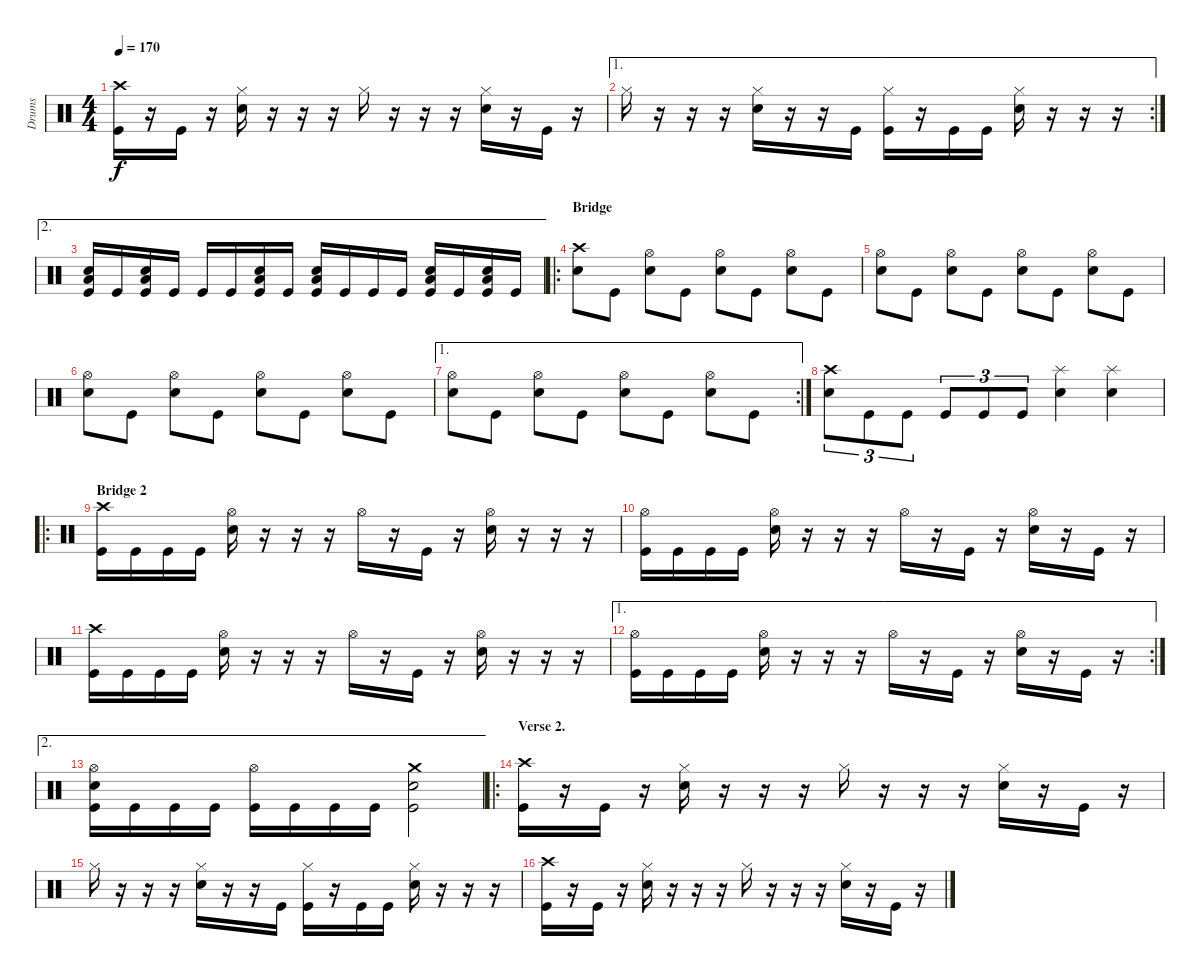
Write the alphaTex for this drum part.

\track ("Drums" "Drums") {instrument percussion}
\staff {score}
\articulation defaults
\ts (4 4)
\tempo 170
\clef neutral
\ks c
("Crash high (hit)" "Kick (hit)").16{dy f} r.16 "Kick (hit)".16 r.16 ("Hi-Hat (closed)" "Snare (hit) 2").16 r.16 r.16 r.16 "Hi-Hat (closed)".16 r.16 r.16 r.16 ("Hi-Hat (closed)" "Snare (hit) 2").16 r.16 "Kick (hit)".16 r.16 |
\ae 1
\rc 2 "Hi-Hat (closed)".16
r.16 r.16 r.16 ("Hi-Hat (closed)" "Snare (hit) 2").16 r.16 r.16 "Kick (hit)".16 ("Hi-Hat (closed)" "Kick (hit)").16 r.16 "Kick (hit)".16 "Kick (hit)".16 ("Hi-Hat (closed)" "Snare (hit) 2").16 r.16 r.16 r.16 |
\ae 2
("Low Floor Tom (hit)" "Snare (hit) 2" "Kick (hit)").16 "Kick (hit)".16 ("Low Floor Tom (hit)" "Snare (hit) 2" "Kick (hit)").16 "Kick (hit)".16 "Kick (hit)".16 "Kick (hit)".16 ("Low Floor Tom (hit)" "Snare (hit) 2" "Kick (hit)").16 "Kick (hit)".16 ("Low Floor Tom (hit)" "Snare (hit) 2" "Kick (hit)").16 "Kick (hit)".16 "Kick (hit)".16 "Kick (hit)".16 ("Low Floor Tom (hit)" "Snare (hit) 2" "Kick (hit)").16 "Kick (hit)".16 ("Low Floor Tom (hit)" "Snare (hit) 2" "Kick (hit)").16 "Kick (hit)".16 |
\ro
\section ("" "Bridge")
("Crash high (hit)" "Snare (hit) 2").8 "Kick (hit)".8 ("Hi-Hat (open)" "Snare (hit) 2").8 "Kick (hit)".8 ("Hi-Hat (open)" "Snare (hit) 2").8 "Kick (hit)".8 ("Hi-Hat (open)" "Snare (hit) 2").8 "Kick (hit)".8 |
("Hi-Hat (open)" "Snare (hit) 2").8 "Kick (hit)".8 ("Hi-Hat (open)" "Snare (hit) 2").8 "Kick (hit)".8 ("Hi-Hat (open)" "Snare (hit) 2").8 "Kick (hit)".8 ("Hi-Hat (open)" "Snare (hit) 2").8 "Kick (hit)".8 |
("Hi-Hat (open)" "Snare (hit) 2").8 "Kick (hit)".8 ("Hi-Hat (open)" "Snare (hit) 2").8 "Kick (hit)".8 ("Hi-Hat (open)" "Snare (hit) 2").8 "Kick (hit)".8 ("Hi-Hat (open)" "Snare (hit) 2").8 "Kick (hit)".8 |
\ae 1
\rc 2
("Hi-Hat (open)" "Snare (hit) 2").8 "Kick (hit)".8 ("Hi-Hat (open)" "Snare (hit) 2").8 "Kick (hit)".8 ("Hi-Hat (open)" "Snare (hit) 2").8 "Kick (hit)".8 ("Hi-Hat (open)" "Snare (hit) 2").8 "Kick (hit)".8 |
("Crash high (hit)" "Snare (hit) 2").8{tu (3 2)} "Kick (hit)".8{tu (3 2)} "Kick (hit)".8{tu (3 2)} "Kick (hit)".8{tu (3 2)} "Kick (hit)".8{tu (3 2)} "Kick (hit)".8{tu (3 2)} ("Splash (hit)" "Snare (hit) 2").4 ("Splash (hit)" "Snare (hit) 2").4 |
\ro
\section ("" "Bridge 2")
("Crash high (hit)" "Kick (hit)").16 "Kick (hit)".16 "Kick (hit)".16 "Kick (hit)".16 ("Hi-Hat (open)" "Snare (hit) 2").16 r.16 r.16 r.16 "Hi-Hat (open)".16 r.16 "Kick (hit)".16 r.16 ("Hi-Hat (open)" "Snare (hit) 2").16 r.16 r.16 r.16 |
("Hi-Hat (open)" "Kick (hit)").16 "Kick (hit)".16 "Kick (hit)".16 "Kick (hit)".16 ("Hi-Hat (open)" "Snare (hit) 2").16 r.16 r.16 r.16 "Hi-Hat (open)".16 r.16 "Kick (hit)".16 r.16 ("Hi-Hat (open)" "Snare (hit) 2").16 r.16 "Kick (hit)".16 r.16 |
("Crash high (hit)" "Kick (hit)").16 "Kick (hit)".16 "Kick (hit)".16 "Kick (hit)".16 ("Hi-Hat (open)" "Snare (hit) 2").16 r.16 r.16 r.16 "Hi-Hat (open)".16 r.16 "Kick (hit)".16 r.16 ("Hi-Hat (open)" "Snare (hit) 2").16 r.16 r.16 r.16 |
\ae 1
\rc 2
("Hi-Hat (open)" "Kick (hit)").16 "Kick (hit)".16 "Kick (hit)".16 "Kick (hit)".16 ("Hi-Hat (open)" "Snare (hit) 2").16 r.16 r.16 r.16 "Hi-Hat (open)".16 r.16 "Kick (hit)".16 r.16 ("Hi-Hat (open)" "Snare (hit) 2").16 r.16 "Kick (hit)".16 r.16 |
\ae 2
("Hi-Hat (open)" "Snare (hit) 2" "Kick (hit)").16 "Kick (hit)".16 "Kick (hit)".16 "Kick (hit)".16 ("Hi-Hat (open)" "Kick (hit)").16 "Kick (hit)".16 "Kick (hit)".16 "Kick (hit)".16 ("Crash medium (hit)" "Snare (hit) 2" "Kick (hit)").2 |
\ro
\section ("" "Verse 2.")
("Crash high (hit)" "Kick (hit)").16 r.16 "Kick (hit)".16 r.16 ("Hi-Hat (closed)" "Snare (hit) 2").16 r.16 r.16 r.16 "Hi-Hat (closed)".16 r.16 r.16 r.16 ("Hi-Hat (closed)" "Snare (hit) 2").16 r.16 "Kick (hit)".16 r.16 |
"Hi-Hat (closed)".16 r.16 r.16 r.16 ("Hi-Hat (closed)" "Snare (hit) 2").16 r.16 r.16 "Kick (hit)".16 ("Hi-Hat (closed)" "Kick (hit)").16 r.16 "Kick (hit)".16 "Kick (hit)".16 ("Hi-Hat (closed)" "Snare (hit) 2").16 r.16 r.16 r.16 |
("Crash high (hit)" "Kick (hit)").16 r.16 "Kick (hit)".16 r.16 ("Hi-Hat (closed)" "Snare (hit) 2").16 r.16 r.16 r.16 "Hi-Hat (closed)".16 r.16 r.16 r.16 ("Hi-Hat (closed)" "Snare (hit) 2").16 r.16 "Kick (hit)".16 r.16
